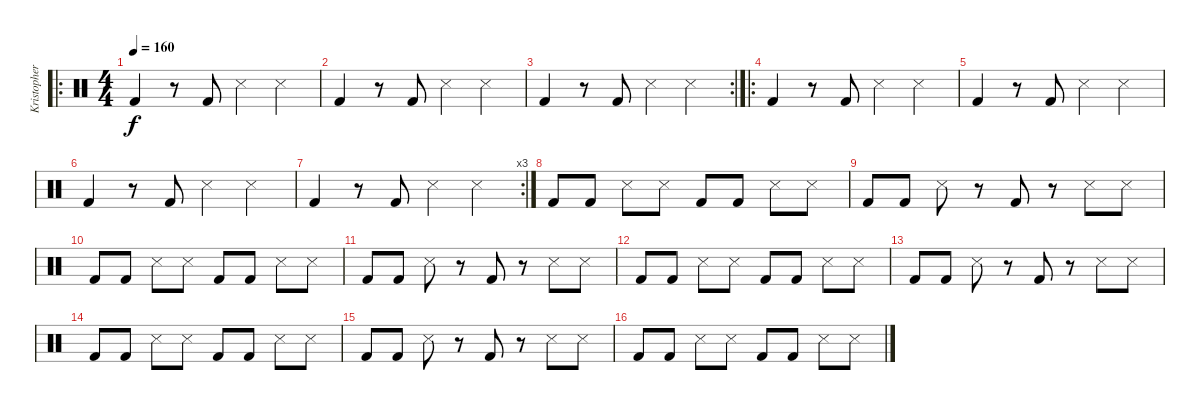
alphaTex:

\track ("Kristopher Schau (deep freezer,stove)" "Kristopher") {instrument percussion}
\staff {score}
\articulation defaults
\ro
\ts (4 4)
\tempo 160
\clef neutral
\ks c "Kick (hit) 2".4{dy f}
r.8 "Kick (hit) 2".8 "Snare (side stick) 3".4 "Snare (side stick) 3".4 |
"Kick (hit) 2".4 r.8 "Kick (hit) 2".8 "Snare (side stick) 3".4 "Snare (side stick) 3".4 |
\rc 2 "Kick (hit) 2".4
r.8 "Kick (hit) 2".8 "Snare (side stick) 3".4 "Snare (side stick) 3".4 |
\ro "Kick (hit) 2".4
r.8 "Kick (hit) 2".8 "Snare (side stick) 3".4 "Snare (side stick) 3".4 |
"Kick (hit) 2".4 r.8 "Kick (hit) 2".8 "Snare (side stick) 3".4 "Snare (side stick) 3".4 |
"Kick (hit) 2".4 r.8 "Kick (hit) 2".8 "Snare (side stick) 3".4 "Snare (side stick) 3".4 |
\rc 3 "Kick (hit) 2".4
r.8 "Kick (hit) 2".8 "Snare (side stick) 3".4 "Snare (side stick) 3".4 |
"Kick (hit) 2".8 "Kick (hit) 2".8 "Snare (side stick) 3".8 "Snare (side stick) 3".8 "Kick (hit) 2".8 "Kick (hit) 2".8 "Snare (side stick) 3".8 "Snare (side stick) 3".8 |
"Kick (hit) 2".8 "Kick (hit) 2".8 "Snare (side stick) 3".8 r.8 "Kick (hit) 2".8 r.8 "Snare (side stick) 3".8 "Snare (side stick) 3".8 |
"Kick (hit) 2".8 "Kick (hit) 2".8 "Snare (side stick) 3".8 "Snare (side stick) 3".8 "Kick (hit) 2".8 "Kick (hit) 2".8 "Snare (side stick) 3".8 "Snare (side stick) 3".8 |
"Kick (hit) 2".8 "Kick (hit) 2".8 "Snare (side stick) 3".8 r.8 "Kick (hit) 2".8 r.8 "Snare (side stick) 3".8 "Snare (side stick) 3".8 |
"Kick (hit) 2".8 "Kick (hit) 2".8 "Snare (side stick) 3".8 "Snare (side stick) 3".8 "Kick (hit) 2".8 "Kick (hit) 2".8 "Snare (side stick) 3".8 "Snare (side stick) 3".8 |
"Kick (hit) 2".8 "Kick (hit) 2".8 "Snare (side stick) 3".8 r.8 "Kick (hit) 2".8 r.8 "Snare (side stick) 3".8 "Snare (side stick) 3".8 |
"Kick (hit) 2".8 "Kick (hit) 2".8 "Snare (side stick) 3".8 "Snare (side stick) 3".8 "Kick (hit) 2".8 "Kick (hit) 2".8 "Snare (side stick) 3".8 "Snare (side stick) 3".8 |
"Kick (hit) 2".8 "Kick (hit) 2".8 "Snare (side stick) 3".8 r.8 "Kick (hit) 2".8 r.8 "Snare (side stick) 3".8 "Snare (side stick) 3".8 |
"Kick (hit) 2".8 "Kick (hit) 2".8 "Snare (side stick) 3".8 "Snare (side stick) 3".8 "Kick (hit) 2".8 "Kick (hit) 2".8 "Snare (side stick) 3".8 "Snare (side stick) 3".8
